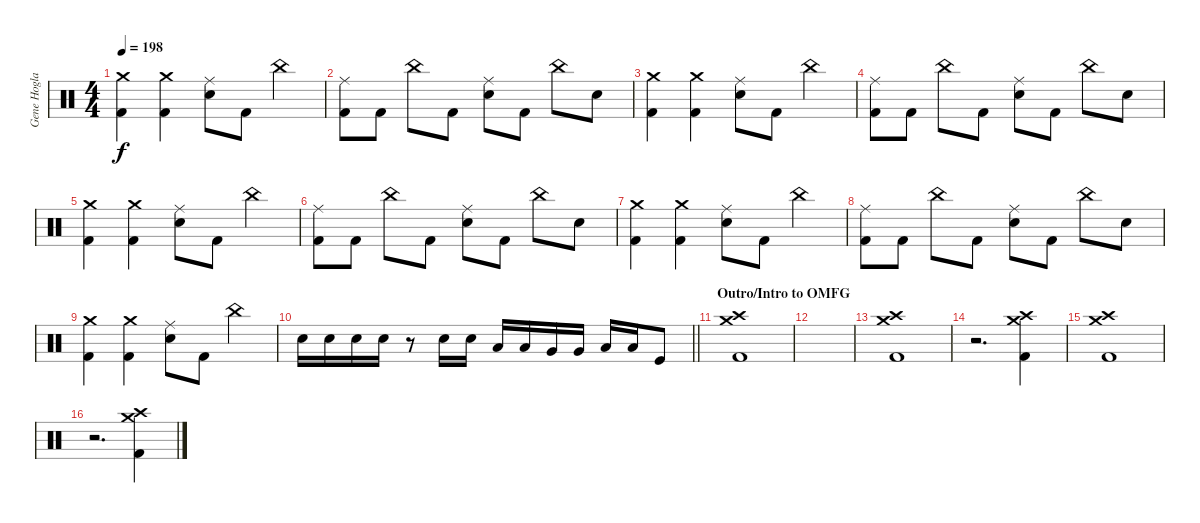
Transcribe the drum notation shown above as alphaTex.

\track ("Gene Hoglan" "Gene Hogla") {instrument percussion}
\staff {score}
\articulation defaults
\ts (4 4)
\tempo 198
\clef neutral
\ks c
("Crash medium (hit)" "Kick (hit) 2").4{dy f} ("Crash medium (hit)" "Kick (hit) 2").4 ("Ride (middle)" "Snare (hit) 2").8 "Kick (hit) 2".8 "China (hit)".4 |
("Ride (middle)" "Kick (hit) 2").8 "Kick (hit) 2".8 "China (hit)".8 "Kick (hit) 2".8 ("Ride (middle)" "Snare (hit) 2").8 "Kick (hit) 2".8 "China (hit)".8 "Snare (hit) 2".8 |
("Crash medium (hit)" "Kick (hit) 2").4 ("Crash medium (hit)" "Kick (hit) 2").4 ("Ride (middle)" "Snare (hit) 2").8 "Kick (hit) 2".8 "China (hit)".4 |
("Ride (middle)" "Kick (hit) 2").8 "Kick (hit) 2".8 "China (hit)".8 "Kick (hit) 2".8 ("Ride (middle)" "Snare (hit) 2").8 "Kick (hit) 2".8 "China (hit)".8 "Snare (hit) 2".8 |
("Crash medium (hit)" "Kick (hit) 2").4 ("Crash medium (hit)" "Kick (hit) 2").4 ("Ride (middle)" "Snare (hit) 2").8 "Kick (hit) 2".8 "China (hit)".4 |
("Ride (middle)" "Kick (hit) 2").8 "Kick (hit) 2".8 "China (hit)".8 "Kick (hit) 2".8 ("Ride (middle)" "Snare (hit) 2").8 "Kick (hit) 2".8 "China (hit)".8 "Snare (hit) 2".8 |
("Crash medium (hit)" "Kick (hit) 2").4 ("Crash medium (hit)" "Kick (hit) 2").4 ("Ride (middle)" "Snare (hit) 2").8 "Kick (hit) 2".8 "China (hit)".4 |
("Ride (middle)" "Kick (hit) 2").8 "Kick (hit) 2".8 "China (hit)".8 "Kick (hit) 2".8 ("Ride (middle)" "Snare (hit) 2").8 "Kick (hit) 2".8 "China (hit)".8 "Snare (hit) 2".8 |
("Crash medium (hit)" "Kick (hit) 2").4 ("Crash medium (hit)" "Kick (hit) 2").4 ("Ride (middle)" "Snare (hit) 2").8 "Kick (hit) 2".8 "China (hit)".4 |
\barLineRight lightlight "Snare (hit) 2".16 "Snare (hit) 2".16 "Snare (hit) 2".16 "Snare (hit) 2".16
r.8 "Snare (hit) 2".16 "Snare (hit) 2".16 "Low Tom (hit)".16 "Low Tom (hit)".16 "Very Low Tom (hit)".16 "Very Low Tom (hit)".16 "Low Floor Tom (hit)".16 "Low Floor Tom (hit)".16 "Kick (hit)".8 |
\section ("" "Outro/Intro to OMFG")
("Crash medium (hit)" "Crash high (hit)" "Kick (hit) 2").1 |
|
("Crash medium (hit)" "Crash high (hit)" "Kick (hit) 2").1 |
r.2{d} ("Crash medium (hit)" "Crash high (hit)" "Kick (hit) 2").4 |
("Crash medium (hit)" "Crash high (hit)" "Kick (hit) 2").1 |
r.2{d} ("Crash medium (hit)" "Crash high (hit)" "Kick (hit) 2").4
